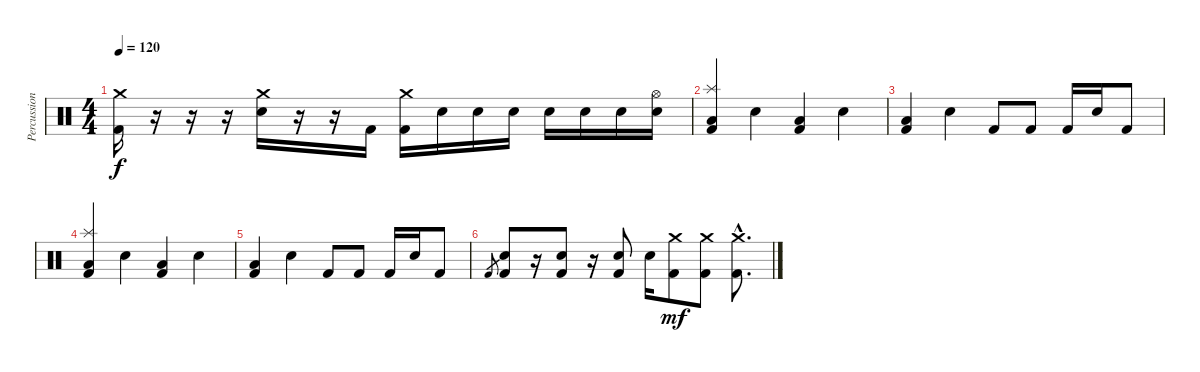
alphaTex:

\track ("Percussion" "Percussion") {instrument percussion}
\staff {score}
\articulation defaults
\ts (4 4)
\tempo 120
\clef neutral
\ks c
("Crash medium (hit)" "Kick (hit) 2").16{dy f} r.16 r.16 r.16 ("Crash medium (hit)" "Electric Snare (hit)").16 r.16 r.16 "Kick (hit) 2".16 ("Crash medium (hit)" "Kick (hit) 2").16 "Electric Snare (hit)".16 "Electric Snare (hit)".16 "Electric Snare (hit)".16 "Electric Snare (hit)".16 "Electric Snare (hit)".16 "Electric Snare (hit)".16 ("Hi-Hat (open)" "Electric Snare (hit)").16 |
("Splash (hit)" "Kick (hit) 2" "Low Floor Tom (hit)").4 "Electric Snare (hit)".4 ("Kick (hit) 2" "Low Floor Tom (hit)").4 "Electric Snare (hit)".4 |
("Kick (hit) 2" "Low Floor Tom (hit)").4 "Electric Snare (hit)".4 "Kick (hit) 2".8 "Kick (hit) 2".8 "Kick (hit) 2".16 "Electric Snare (hit)".16 "Kick (hit) 2".8 |
("Splash (hit)" "Kick (hit) 2" "Low Floor Tom (hit)").4 "Electric Snare (hit)".4 ("Kick (hit) 2" "Low Floor Tom (hit)").4 "Electric Snare (hit)".4 |
("Kick (hit) 2" "Low Floor Tom (hit)").4 "Electric Snare (hit)".4 "Kick (hit) 2".8 "Kick (hit) 2".8 "Kick (hit) 2".16 "Electric Snare (hit)".16 "Kick (hit) 2".8 |
"Kick (hit) 2".8{gr} ("Kick (hit) 2" "Electric Snare (hit)").8 r.16 ("Kick (hit) 2" "Electric Snare (hit)").8 r.16 ("Kick (hit) 2" "Electric Snare (hit)").8 "Electric Snare (hit)".16 ("Kick (hit) 2" "Crash medium (hit)").8{dy mf} ("Kick (hit) 2" "Crash medium (hit)").8 ("Kick (hit) 2"{hac} "Crash medium (hit)"{hac}).8{d}
